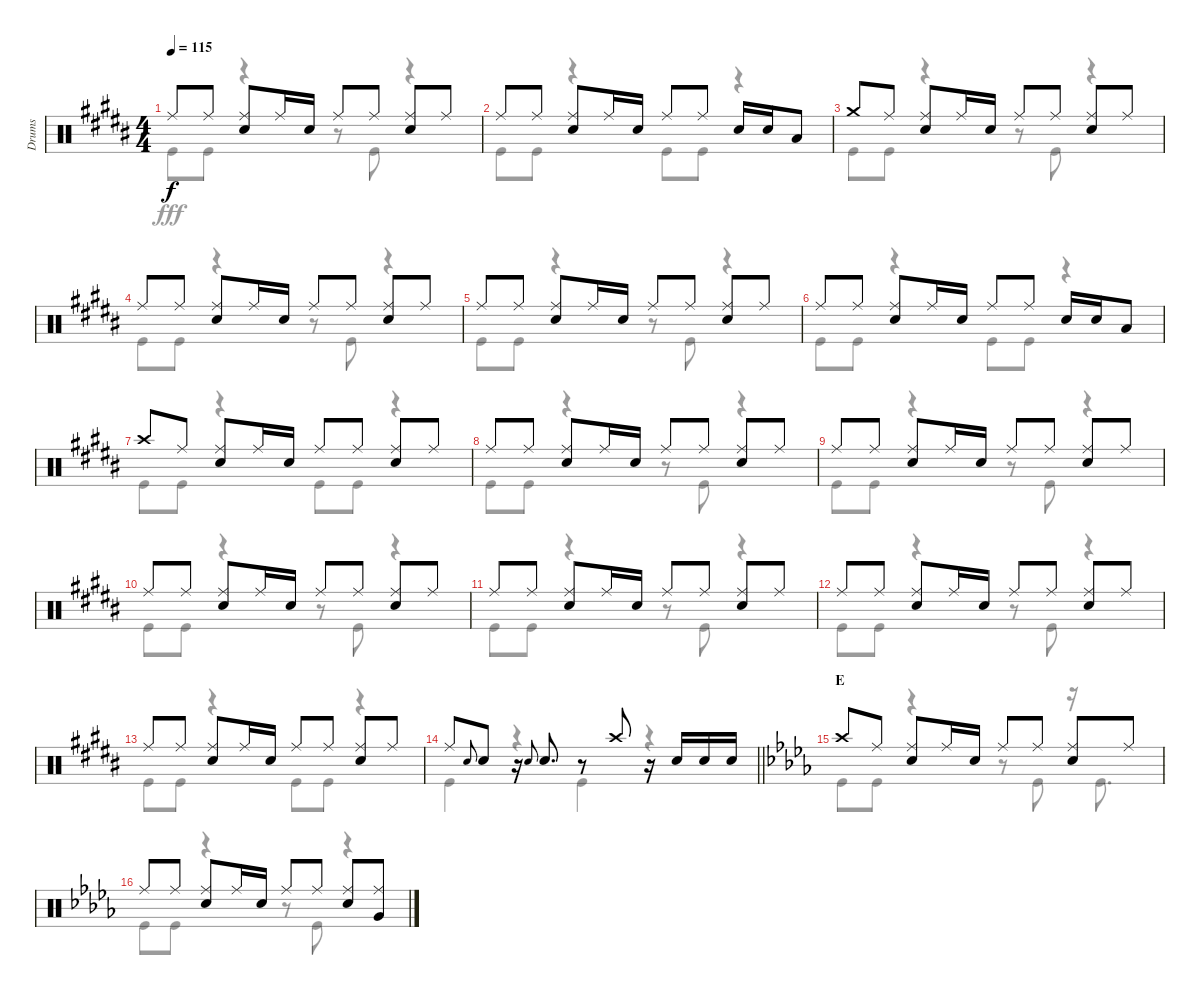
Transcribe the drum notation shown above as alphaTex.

\track ("Drums" "Drums") {instrument percussion}
\staff {score}
\articulation defaults
\voice
\ts (4 4)
\tempo 115
\clef neutral
\ks b "Ride (middle)".8{dy f} "Ride (middle)".8
("Ride (middle)" "Snare (hit) 2").8 "Ride (middle)".16 "Snare (hit) 2".16 "Ride (middle)".8 "Ride (middle)".8 ("Ride (middle)" "Snare (hit) 2").8 "Ride (middle)".8 |
"Ride (middle)".8 "Ride (middle)".8 ("Ride (middle)" "Snare (hit) 2").8 "Ride (middle)".16 "Snare (hit) 2".16 "Ride (middle)".8 "Ride (middle)".8 "Snare (hit) 2".16 "Snare (hit) 2".16 "Low Tom (hit)".8 |
"Crash medium (hit)".8 "Ride (middle)".8 ("Ride (middle)" "Snare (hit) 2").8 "Ride (middle)".16 "Snare (hit) 2".16 "Ride (middle)".8 "Ride (middle)".8 ("Ride (middle)" "Snare (hit) 2").8 "Ride (middle)".8 |
"Ride (middle)".8 "Ride (middle)".8 ("Ride (middle)" "Snare (hit) 2").8 "Ride (middle)".16 "Snare (hit) 2".16 "Ride (middle)".8 "Ride (middle)".8 ("Ride (middle)" "Snare (hit) 2").8 "Ride (middle)".8 |
"Ride (middle)".8 "Ride (middle)".8 ("Ride (middle)" "Snare (hit) 2").8 "Ride (middle)".16 "Snare (hit) 2".16 "Ride (middle)".8 "Ride (middle)".8 ("Ride (middle)" "Snare (hit) 2").8 "Ride (middle)".8 |
"Ride (middle)".8 "Ride (middle)".8 ("Ride (middle)" "Snare (hit) 2").8 "Ride (middle)".16 "Snare (hit) 2".16 "Ride (middle)".8 "Ride (middle)".8 "Snare (hit) 2".16 "Snare (hit) 2".16 "Low Tom (hit)".8 |
"Crash high (hit)".8 "Ride (middle)".8 ("Ride (middle)" "Snare (hit) 2").8 "Ride (middle)".16 "Snare (hit) 2".16 "Ride (middle)".8 "Ride (middle)".8 ("Ride (middle)" "Snare (hit) 2").8 "Ride (middle)".8 |
"Ride (middle)".8 "Ride (middle)".8 ("Ride (middle)" "Snare (hit) 2").8 "Ride (middle)".16 "Snare (hit) 2".16 "Ride (middle)".8 "Ride (middle)".8 ("Ride (middle)" "Snare (hit) 2").8 "Ride (middle)".8 |
"Ride (middle)".8 "Ride (middle)".8 ("Ride (middle)" "Snare (hit) 2").8 "Ride (middle)".16 "Snare (hit) 2".16 "Ride (middle)".8 "Ride (middle)".8 ("Ride (middle)" "Snare (hit) 2").8 "Ride (middle)".8 |
"Ride (middle)".8 "Ride (middle)".8 ("Ride (middle)" "Snare (hit) 2").8 "Ride (middle)".16 "Snare (hit) 2".16 "Ride (middle)".8 "Ride (middle)".8 ("Ride (middle)" "Snare (hit) 2").8 "Ride (middle)".8 |
"Ride (middle)".8 "Ride (middle)".8 ("Ride (middle)" "Snare (hit) 2").8 "Ride (middle)".16 "Snare (hit) 2".16 "Ride (middle)".8 "Ride (middle)".8 ("Ride (middle)" "Snare (hit) 2").8 "Ride (middle)".8 |
"Ride (middle)".8 "Ride (middle)".8 ("Ride (middle)" "Snare (hit) 2").8 "Ride (middle)".16 "Snare (hit) 2".16 "Ride (middle)".8 "Ride (middle)".8 ("Ride (middle)" "Snare (hit) 2").8 "Ride (middle)".8 |
"Ride (middle)".8 "Ride (middle)".8 ("Ride (middle)" "Snare (hit) 2").8 "Ride (middle)".16 "Snare (hit) 2".16 "Ride (middle)".8 "Ride (middle)".8 ("Ride (middle)" "Snare (hit) 2").8 "Ride (middle)".8 |
\barLineRight lightlight "Ride (middle)".8 "Snare (hit) 2".8{gr onbeat} "Snare (hit) 2".8
r.16 "Snare (hit) 2".8{gr onbeat} "Snare (hit) 2".8{d} r.8 "Crash high (hit)".8 r.16 "Snare (hit) 2".16 "Snare (hit) 2".16 "Snare (hit) 2".16 |
\section ("" "E")
\ks db "Crash high (hit)".8 "Ride (middle)".8
("Ride (middle)" "Snare (hit) 2").8 "Ride (middle)".16 "Snare (hit) 2".16 "Ride (middle)".8 "Ride (middle)".8 ("Ride (middle)" "Snare (hit) 2").8 "Ride (middle)".8 |
"Ride (middle)".8 "Ride (middle)".8 ("Ride (middle)" "Snare (hit) 2").8 "Ride (middle)".16 "Snare (hit) 2".16 "Ride (middle)".8 "Ride (middle)".8 ("Ride (middle)" "Snare (hit) 2").8 ("Ride (middle)" "Very Low Tom (hit)").8
\voice
\clef neutral
\ottava regular
\simile none
\ks b "Kick (hit)".8{dy fff} "Kick (hit)".8
r.4 r.8 "Kick (hit)".8 r.4 |
"Kick (hit)".8 "Kick (hit)".8 r.4 "Kick (hit)".8 "Kick (hit)".8 r.4 |
"Kick (hit)".8 "Kick (hit)".8 r.4 r.8 "Kick (hit)".8 r.4 |
"Kick (hit)".8 "Kick (hit)".8 r.4 r.8 "Kick (hit)".8 r.4 |
"Kick (hit)".8 "Kick (hit)".8 r.4 r.8 "Kick (hit)".8 r.4 |
"Kick (hit)".8 "Kick (hit)".8 r.4 "Kick (hit)".8 "Kick (hit)".8 r.4 |
"Kick (hit)".8 "Kick (hit)".8 r.4 "Kick (hit)".8 "Kick (hit)".8 r.4 |
"Kick (hit)".8 "Kick (hit)".8 r.4 r.8 "Kick (hit)".8 r.4 |
"Kick (hit)".8 "Kick (hit)".8 r.4 r.8 "Kick (hit)".8 r.4 |
"Kick (hit)".8 "Kick (hit)".8 r.4 r.8 "Kick (hit)".8 r.4 |
"Kick (hit)".8 "Kick (hit)".8 r.4 r.8 "Kick (hit)".8 r.4 |
"Kick (hit)".8 "Kick (hit)".8 r.4 r.8 "Kick (hit)".8 r.4 |
"Kick (hit)".8 "Kick (hit)".8 r.4 "Kick (hit)".8 "Kick (hit)".8 r.4 |
\barLineRight lightlight "Kick (hit)".4
r.4 "Kick (hit)".4 r.4 |
\ks db "Kick (hit)".8 "Kick (hit)".8
r.4 r.8 "Kick (hit)".8 r.16 "Kick (hit)".8{d} |
"Kick (hit)".8 "Kick (hit)".8 r.4 r.8 "Kick (hit)".8 r.4
